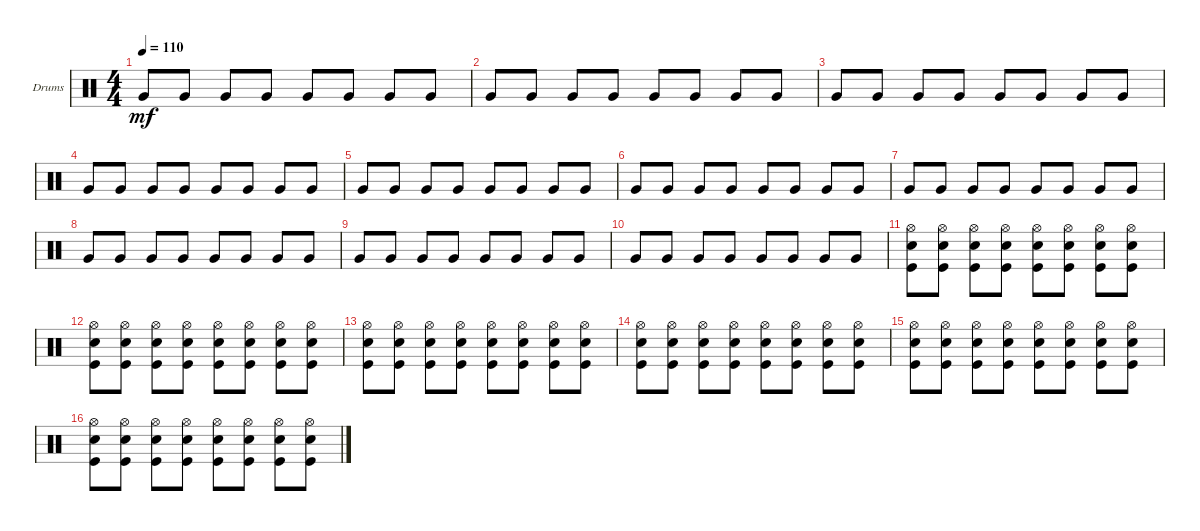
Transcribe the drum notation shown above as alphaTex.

\defaultSystemsLayout 4
\bracketExtendMode groupsimilarinstruments
\firstSystemTrackNameOrientation horizontal
\otherSystemsTrackNameOrientation horizontal
\track ("Fabrizio" "Drums") {instrument percussion}
\staff {score}
\articulation defaults
\ts (4 4)
\tempo 110
\clef neutral
\ks c "Very Low Tom (hit)".8{dy mf} "Very Low Tom (hit)".8 "Very Low Tom (hit)".8 "Very Low Tom (hit)".8 "Very Low Tom (hit)".8 "Very Low Tom (hit)".8 "Very Low Tom (hit)".8 "Very Low Tom (hit)".8
|
"Very Low Tom (hit)".8 "Very Low Tom (hit)".8 "Very Low Tom (hit)".8 "Very Low Tom (hit)".8 "Very Low Tom (hit)".8 "Very Low Tom (hit)".8 "Very Low Tom (hit)".8 "Very Low Tom (hit)".8 |
"Very Low Tom (hit)".8 "Very Low Tom (hit)".8 "Very Low Tom (hit)".8 "Very Low Tom (hit)".8 "Very Low Tom (hit)".8 "Very Low Tom (hit)".8 "Very Low Tom (hit)".8 "Very Low Tom (hit)".8 |
"Very Low Tom (hit)".8 "Very Low Tom (hit)".8 "Very Low Tom (hit)".8 "Very Low Tom (hit)".8 "Very Low Tom (hit)".8 "Very Low Tom (hit)".8 "Very Low Tom (hit)".8 "Very Low Tom (hit)".8 |
"Very Low Tom (hit)".8 "Very Low Tom (hit)".8 "Very Low Tom (hit)".8 "Very Low Tom (hit)".8 "Very Low Tom (hit)".8 "Very Low Tom (hit)".8 "Very Low Tom (hit)".8 "Very Low Tom (hit)".8 |
"Very Low Tom (hit)".8 "Very Low Tom (hit)".8 "Very Low Tom (hit)".8 "Very Low Tom (hit)".8 "Very Low Tom (hit)".8 "Very Low Tom (hit)".8 "Very Low Tom (hit)".8 "Very Low Tom (hit)".8 |
"Very Low Tom (hit)".8 "Very Low Tom (hit)".8 "Very Low Tom (hit)".8 "Very Low Tom (hit)".8 "Very Low Tom (hit)".8 "Very Low Tom (hit)".8 "Very Low Tom (hit)".8 "Very Low Tom (hit)".8 |
"Very Low Tom (hit)".8 "Very Low Tom (hit)".8 "Very Low Tom (hit)".8 "Very Low Tom (hit)".8 "Very Low Tom (hit)".8 "Very Low Tom (hit)".8 "Very Low Tom (hit)".8 "Very Low Tom (hit)".8 |
"Very Low Tom (hit)".8 "Very Low Tom (hit)".8 "Very Low Tom (hit)".8 "Very Low Tom (hit)".8 "Very Low Tom (hit)".8 "Very Low Tom (hit)".8 "Very Low Tom (hit)".8 "Very Low Tom (hit)".8 |
"Very Low Tom (hit)".8 "Very Low Tom (hit)".8 "Very Low Tom (hit)".8 "Very Low Tom (hit)".8 "Very Low Tom (hit)".8 "Very Low Tom (hit)".8 "Very Low Tom (hit)".8 "Very Low Tom (hit)".8 |
("Snare (hit) 2" "Kick (hit)" "Hi-Hat (open)").8 ("Snare (hit) 2" "Kick (hit)" "Hi-Hat (open)").8 ("Snare (hit) 2" "Kick (hit)" "Hi-Hat (open)").8 ("Snare (hit) 2" "Kick (hit)" "Hi-Hat (open)").8 ("Snare (hit) 2" "Kick (hit)" "Hi-Hat (open)").8 ("Snare (hit) 2" "Kick (hit)" "Hi-Hat (open)").8 ("Snare (hit) 2" "Kick (hit)" "Hi-Hat (open)").8 ("Snare (hit) 2" "Kick (hit)" "Hi-Hat (open)").8 |
("Snare (hit) 2" "Kick (hit)" "Hi-Hat (open)").8 ("Snare (hit) 2" "Kick (hit)" "Hi-Hat (open)").8 ("Snare (hit) 2" "Kick (hit)" "Hi-Hat (open)").8 ("Snare (hit) 2" "Kick (hit)" "Hi-Hat (open)").8 ("Snare (hit) 2" "Kick (hit)" "Hi-Hat (open)").8 ("Snare (hit) 2" "Kick (hit)" "Hi-Hat (open)").8 ("Snare (hit) 2" "Kick (hit)" "Hi-Hat (open)").8 ("Snare (hit) 2" "Kick (hit)" "Hi-Hat (open)").8 |
("Snare (hit) 2" "Kick (hit)" "Hi-Hat (open)").8 ("Snare (hit) 2" "Kick (hit)" "Hi-Hat (open)").8 ("Snare (hit) 2" "Kick (hit)" "Hi-Hat (open)").8 ("Snare (hit) 2" "Kick (hit)" "Hi-Hat (open)").8 ("Snare (hit) 2" "Kick (hit)" "Hi-Hat (open)").8 ("Snare (hit) 2" "Kick (hit)" "Hi-Hat (open)").8 ("Snare (hit) 2" "Kick (hit)" "Hi-Hat (open)").8 ("Snare (hit) 2" "Kick (hit)" "Hi-Hat (open)").8 |
("Snare (hit) 2" "Kick (hit)" "Hi-Hat (open)").8 ("Snare (hit) 2" "Kick (hit)" "Hi-Hat (open)").8 ("Snare (hit) 2" "Kick (hit)" "Hi-Hat (open)").8 ("Snare (hit) 2" "Kick (hit)" "Hi-Hat (open)").8 ("Snare (hit) 2" "Kick (hit)" "Hi-Hat (open)").8 ("Snare (hit) 2" "Kick (hit)" "Hi-Hat (open)").8 ("Snare (hit) 2" "Kick (hit)" "Hi-Hat (open)").8 ("Snare (hit) 2" "Kick (hit)" "Hi-Hat (open)").8 |
("Snare (hit) 2" "Kick (hit)" "Hi-Hat (open)").8 ("Snare (hit) 2" "Kick (hit)" "Hi-Hat (open)").8 ("Snare (hit) 2" "Kick (hit)" "Hi-Hat (open)").8 ("Snare (hit) 2" "Kick (hit)" "Hi-Hat (open)").8 ("Snare (hit) 2" "Kick (hit)" "Hi-Hat (open)").8 ("Snare (hit) 2" "Kick (hit)" "Hi-Hat (open)").8 ("Snare (hit) 2" "Kick (hit)" "Hi-Hat (open)").8 ("Snare (hit) 2" "Kick (hit)" "Hi-Hat (open)").8 |
("Snare (hit) 2" "Kick (hit)" "Hi-Hat (open)").8 ("Snare (hit) 2" "Kick (hit)" "Hi-Hat (open)").8 ("Snare (hit) 2" "Kick (hit)" "Hi-Hat (open)").8 ("Snare (hit) 2" "Kick (hit)" "Hi-Hat (open)").8 ("Snare (hit) 2" "Kick (hit)" "Hi-Hat (open)").8 ("Snare (hit) 2" "Kick (hit)" "Hi-Hat (open)").8 ("Snare (hit) 2" "Kick (hit)" "Hi-Hat (open)").8 ("Snare (hit) 2" "Kick (hit)" "Hi-Hat (open)").8
